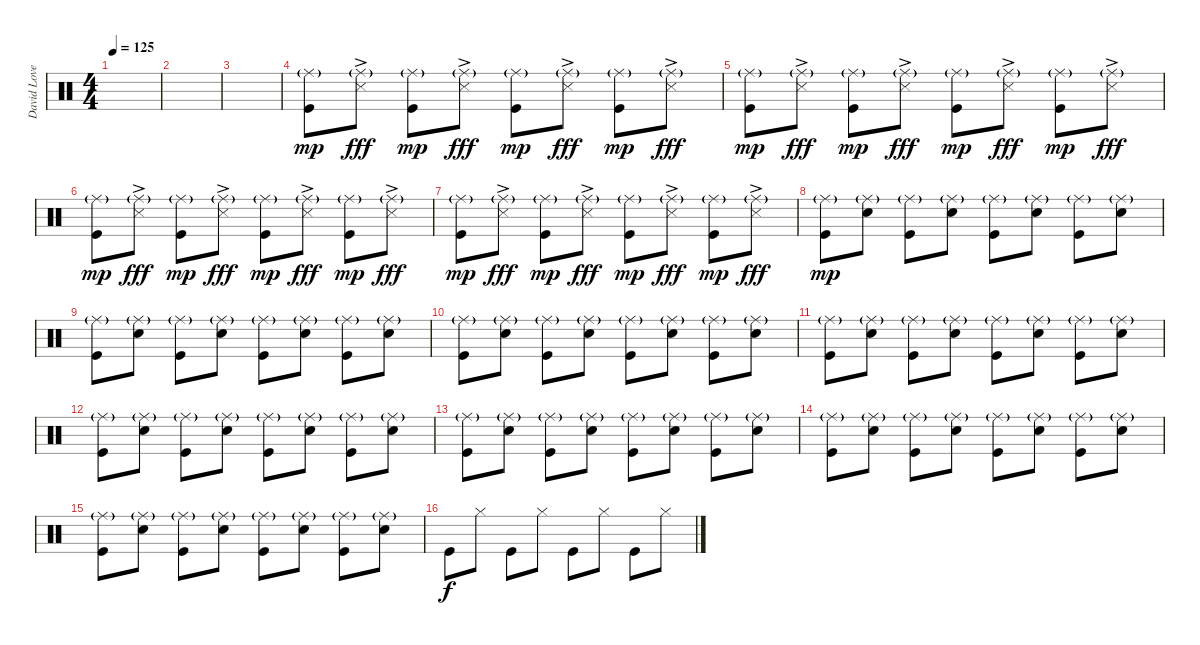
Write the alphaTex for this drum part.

\track ("David Lovering" "David Love") {instrument percussion}
\staff {score}
\articulation defaults
\ts (4 4)
\tempo 125
\clef neutral
\ks c
|
|
|
("Ride (middle)"{g} "Kick (hit)").8{dy mp} ("Ride (middle)"{g} "Snare (side stick) 3"{ac}).8{dy fff} ("Ride (middle)"{g} "Kick (hit)").8{dy mp} ("Ride (middle)"{g} "Snare (side stick) 3"{ac}).8{dy fff} ("Ride (middle)"{g} "Kick (hit)").8{dy mp} ("Ride (middle)"{g} "Snare (side stick) 3"{ac}).8{dy fff} ("Ride (middle)"{g} "Kick (hit)").8{dy mp} ("Ride (middle)"{g} "Snare (side stick) 3"{ac}).8{dy fff} |
("Ride (middle)"{g} "Kick (hit)").8{dy mp} ("Ride (middle)"{g} "Snare (side stick) 3"{ac}).8{dy fff} ("Ride (middle)"{g} "Kick (hit)").8{dy mp} ("Ride (middle)"{g} "Snare (side stick) 3"{ac}).8{dy fff} ("Ride (middle)"{g} "Kick (hit)").8{dy mp} ("Ride (middle)"{g} "Snare (side stick) 3"{ac}).8{dy fff} ("Ride (middle)"{g} "Kick (hit)").8{dy mp} ("Ride (middle)"{g} "Snare (side stick) 3"{ac}).8{dy fff} |
("Ride (middle)"{g} "Kick (hit)").8{dy mp} ("Ride (middle)"{g} "Snare (side stick) 3"{ac}).8{dy fff} ("Ride (middle)"{g} "Kick (hit)").8{dy mp} ("Ride (middle)"{g} "Snare (side stick) 3"{ac}).8{dy fff} ("Ride (middle)"{g} "Kick (hit)").8{dy mp} ("Ride (middle)"{g} "Snare (side stick) 3"{ac}).8{dy fff} ("Ride (middle)"{g} "Kick (hit)").8{dy mp} ("Ride (middle)"{g} "Snare (side stick) 3"{ac}).8{dy fff} |
("Ride (middle)"{g} "Kick (hit)").8{dy mp} ("Ride (middle)"{g} "Snare (side stick) 3"{ac}).8{dy fff} ("Ride (middle)"{g} "Kick (hit)").8{dy mp} ("Ride (middle)"{g} "Snare (side stick) 3"{ac}).8{dy fff} ("Ride (middle)"{g} "Kick (hit)").8{dy mp} ("Ride (middle)"{g} "Snare (side stick) 3"{ac}).8{dy fff} ("Ride (middle)"{g} "Kick (hit)").8{dy mp} ("Ride (middle)"{g} "Snare (side stick) 3"{ac}).8{dy fff} |
\section ("" "")
("Ride (middle)"{g} "Kick (hit)").8{dy mp} ("Ride (middle)"{g} "Snare (hit) 2").8 ("Ride (middle)"{g} "Kick (hit)").8 ("Ride (middle)"{g} "Snare (hit) 2").8 ("Ride (middle)"{g} "Kick (hit)").8 ("Ride (middle)"{g} "Snare (hit) 2").8 ("Ride (middle)"{g} "Kick (hit)").8 ("Ride (middle)"{g} "Snare (hit) 2").8 |
("Ride (middle)"{g} "Kick (hit)").8 ("Ride (middle)"{g} "Snare (hit) 2").8 ("Ride (middle)"{g} "Kick (hit)").8 ("Ride (middle)"{g} "Snare (hit) 2").8 ("Ride (middle)"{g} "Kick (hit)").8 ("Ride (middle)"{g} "Snare (hit) 2").8 ("Ride (middle)"{g} "Kick (hit)").8 ("Ride (middle)"{g} "Snare (hit) 2").8 |
("Ride (middle)"{g} "Kick (hit)").8 ("Ride (middle)"{g} "Snare (hit) 2").8 ("Ride (middle)"{g} "Kick (hit)").8 ("Ride (middle)"{g} "Snare (hit) 2").8 ("Ride (middle)"{g} "Kick (hit)").8 ("Ride (middle)"{g} "Snare (hit) 2").8 ("Ride (middle)"{g} "Kick (hit)").8 ("Ride (middle)"{g} "Snare (hit) 2").8 |
("Ride (middle)"{g} "Kick (hit)").8 ("Ride (middle)"{g} "Snare (hit) 2").8 ("Ride (middle)"{g} "Kick (hit)").8 ("Ride (middle)"{g} "Snare (hit) 2").8 ("Ride (middle)"{g} "Kick (hit)").8 ("Ride (middle)"{g} "Snare (hit) 2").8 ("Ride (middle)"{g} "Kick (hit)").8 ("Ride (middle)"{g} "Snare (hit) 2").8 |
("Ride (middle)"{g} "Kick (hit)").8 ("Ride (middle)"{g} "Snare (hit) 2").8 ("Ride (middle)"{g} "Kick (hit)").8 ("Ride (middle)"{g} "Snare (hit) 2").8 ("Ride (middle)"{g} "Kick (hit)").8 ("Ride (middle)"{g} "Snare (hit) 2").8 ("Ride (middle)"{g} "Kick (hit)").8 ("Ride (middle)"{g} "Snare (hit) 2").8 |
("Ride (middle)"{g} "Kick (hit)").8 ("Ride (middle)"{g} "Snare (hit) 2").8 ("Ride (middle)"{g} "Kick (hit)").8 ("Ride (middle)"{g} "Snare (hit) 2").8 ("Ride (middle)"{g} "Kick (hit)").8 ("Ride (middle)"{g} "Snare (hit) 2").8 ("Ride (middle)"{g} "Kick (hit)").8 ("Ride (middle)"{g} "Snare (hit) 2").8 |
("Ride (middle)"{g} "Kick (hit)").8 ("Ride (middle)"{g} "Snare (hit) 2").8 ("Ride (middle)"{g} "Kick (hit)").8 ("Ride (middle)"{g} "Snare (hit) 2").8 ("Ride (middle)"{g} "Kick (hit)").8 ("Ride (middle)"{g} "Snare (hit) 2").8 ("Ride (middle)"{g} "Kick (hit)").8 ("Ride (middle)"{g} "Snare (hit) 2").8 |
("Ride (middle)"{g} "Kick (hit)").8 ("Ride (middle)"{g} "Snare (hit) 2").8 ("Ride (middle)"{g} "Kick (hit)").8 ("Ride (middle)"{g} "Snare (hit) 2").8 ("Ride (middle)"{g} "Kick (hit)").8 ("Ride (middle)"{g} "Snare (hit) 2").8 ("Ride (middle)"{g} "Kick (hit)").8 ("Ride (middle)"{g} "Snare (hit) 2").8 |
\section ("" "")
"Kick (hit)".8{dy f} "Hi-Hat (closed)".8 "Kick (hit)".8 "Hi-Hat (closed)".8 "Kick (hit)".8 "Hi-Hat (closed)".8 "Kick (hit)".8 "Hi-Hat (closed)".8
